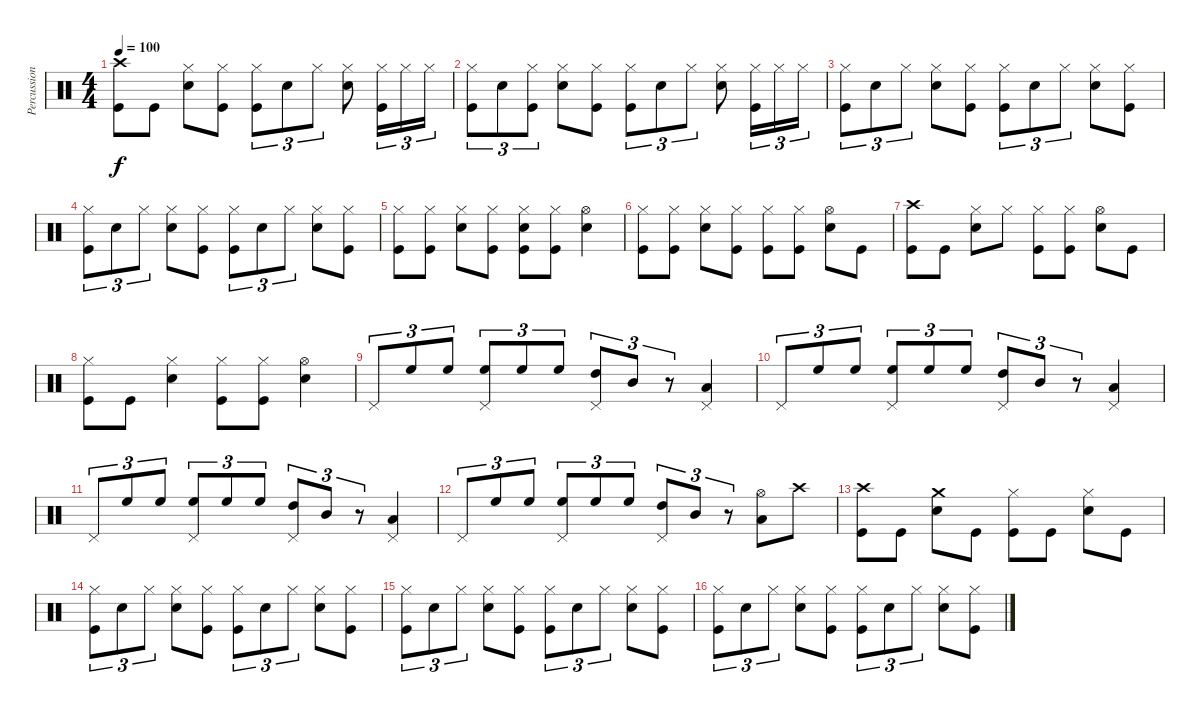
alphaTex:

\track ("Percussions" "Percussion") {instrument percussion}
\staff {score}
\articulation defaults
\ts (4 4)
\tempo 100
\clef neutral
\ks c
("Crash high (hit)" "Kick (hit)").8{dy f} "Kick (hit)".8 ("Hi-Hat (closed)" "Electric Snare (hit)").8 ("Hi-Hat (closed)" "Kick (hit)").8 ("Hi-Hat (closed)" "Kick (hit)").8{tu (3 2)} "Electric Snare (hit)".8{tu (3 2)} "Hi-Hat (closed)".8{tu (3 2)} ("Hi-Hat (closed)" "Electric Snare (hit)").8 ("Hi-Hat (closed)" "Kick (hit)").16{tu (3 2)} "Hi-Hat (closed)".16{tu (3 2)} "Hi-Hat (closed)".16{tu (3 2)} |
("Hi-Hat (closed)" "Kick (hit)").8{tu (3 2)} "Electric Snare (hit)".8{tu (3 2)} ("Hi-Hat (closed)" "Kick (hit)").8{tu (3 2)} ("Hi-Hat (closed)" "Electric Snare (hit)").8 ("Hi-Hat (closed)" "Kick (hit)").8 ("Hi-Hat (closed)" "Kick (hit)").8{tu (3 2)} "Electric Snare (hit)".8{tu (3 2)} "Hi-Hat (closed)".8{tu (3 2)} ("Hi-Hat (closed)" "Electric Snare (hit)").8 ("Hi-Hat (closed)" "Kick (hit)").16{tu (3 2)} "Hi-Hat (closed)".16{tu (3 2)} "Hi-Hat (closed)".16{tu (3 2)} |
("Hi-Hat (closed)" "Kick (hit)").8{tu (3 2)} "Electric Snare (hit)".8{tu (3 2)} "Hi-Hat (closed)".8{tu (3 2)} ("Hi-Hat (closed)" "Electric Snare (hit)").8 ("Hi-Hat (closed)" "Kick (hit)").8 ("Hi-Hat (closed)" "Kick (hit)").8{tu (3 2)} "Electric Snare (hit)".8{tu (3 2)} "Hi-Hat (closed)".8{tu (3 2)} ("Hi-Hat (closed)" "Electric Snare (hit)").8 ("Hi-Hat (closed)" "Kick (hit)").8 |
("Hi-Hat (closed)" "Kick (hit)").8{tu (3 2)} "Electric Snare (hit)".8{tu (3 2)} "Hi-Hat (closed)".8{tu (3 2)} ("Hi-Hat (closed)" "Electric Snare (hit)").8 ("Hi-Hat (closed)" "Kick (hit)").8 ("Hi-Hat (closed)" "Kick (hit)").8{tu (3 2)} "Electric Snare (hit)".8{tu (3 2)} "Hi-Hat (closed)".8{tu (3 2)} ("Hi-Hat (closed)" "Electric Snare (hit)").8 ("Hi-Hat (closed)" "Kick (hit)").8 |
("Hi-Hat (closed)" "Kick (hit)").8 ("Hi-Hat (closed)" "Kick (hit)").8 ("Hi-Hat (closed)" "Electric Snare (hit)").8 ("Hi-Hat (closed)" "Kick (hit)").8 ("Hi-Hat (closed)" "Electric Snare (hit)" "Kick (hit)").8 ("Hi-Hat (closed)" "Kick (hit)").8 ("Hi-Hat (open)" "Electric Snare (hit)").4 |
("Hi-Hat (closed)" "Kick (hit)").8 ("Hi-Hat (closed)" "Kick (hit)").8 ("Hi-Hat (closed)" "Electric Snare (hit)").8 ("Hi-Hat (closed)" "Kick (hit)").8 ("Hi-Hat (closed)" "Kick (hit)").8 ("Hi-Hat (closed)" "Kick (hit)").8 ("Hi-Hat (open)" "Electric Snare (hit)").8 "Kick (hit)".8 |
("Crash high (hit)" "Kick (hit)").8 "Kick (hit)".8 ("Hi-Hat (closed)" "Electric Snare (hit)").8 "Hi-Hat (closed)".8 ("Hi-Hat (closed)" "Kick (hit)").8 ("Hi-Hat (closed)" "Kick (hit)").8 ("Hi-Hat (open)" "Electric Snare (hit)").8 "Kick (hit)".8 |
("Hi-Hat (closed)" "Kick (hit)").8 "Kick (hit)".8 ("Hi-Hat (closed)" "Electric Snare (hit)").4 ("Hi-Hat (closed)" "Kick (hit)").8 ("Hi-Hat (closed)" "Kick (hit)").8 ("Hi-Hat (open)" "Electric Snare (hit)").4 |
"Pedal Hi-Hat (hit)".8{tu (3 2)} "High Floor Tom (hit)".8{tu (3 2)} "High Floor Tom (hit)".8{tu (3 2)} ("High Floor Tom (hit)" "Pedal Hi-Hat (hit)").8{tu (3 2)} "High Floor Tom (hit)".8{tu (3 2)} "High Floor Tom (hit)".8{tu (3 2)} ("High Tom (hit)" "Pedal Hi-Hat (hit)").8{tu (3 2)} "Mid Tom (hit)".8{tu (3 2)} r.8{tu (3 2)} ("Low Tom (hit)" "Pedal Hi-Hat (hit)").4 |
"Pedal Hi-Hat (hit)".8{tu (3 2)} "High Floor Tom (hit)".8{tu (3 2)} "High Floor Tom (hit)".8{tu (3 2)} ("High Floor Tom (hit)" "Pedal Hi-Hat (hit)").8{tu (3 2)} "High Floor Tom (hit)".8{tu (3 2)} "High Floor Tom (hit)".8{tu (3 2)} ("High Tom (hit)" "Pedal Hi-Hat (hit)").8{tu (3 2)} "Mid Tom (hit)".8{tu (3 2)} r.8{tu (3 2)} ("Low Tom (hit)" "Pedal Hi-Hat (hit)").4 |
"Pedal Hi-Hat (hit)".8{tu (3 2)} "High Floor Tom (hit)".8{tu (3 2)} "High Floor Tom (hit)".8{tu (3 2)} ("High Floor Tom (hit)" "Pedal Hi-Hat (hit)").8{tu (3 2)} "High Floor Tom (hit)".8{tu (3 2)} "High Floor Tom (hit)".8{tu (3 2)} ("High Tom (hit)" "Pedal Hi-Hat (hit)").8{tu (3 2)} "Mid Tom (hit)".8{tu (3 2)} r.8{tu (3 2)} ("Low Tom (hit)" "Pedal Hi-Hat (hit)").4 |
"Pedal Hi-Hat (hit)".8{tu (3 2)} "High Floor Tom (hit)".8{tu (3 2)} "High Floor Tom (hit)".8{tu (3 2)} ("High Floor Tom (hit)" "Pedal Hi-Hat (hit)").8{tu (3 2)} "High Floor Tom (hit)".8{tu (3 2)} "High Floor Tom (hit)".8{tu (3 2)} ("High Tom (hit)" "Pedal Hi-Hat (hit)").8{tu (3 2)} "Mid Tom (hit)".8{tu (3 2)} r.8{tu (3 2)} ("Hi-Hat (open)" "Low Tom (hit)").8 "Crash high (hit)".8 |
("Crash high (hit)" "Kick (hit)").8 "Kick (hit)".8 ("Crash medium (hit)" "Electric Snare (hit)").8 "Kick (hit)".8 ("Hi-Hat (closed)" "Kick (hit)").8 "Kick (hit)".8 ("Hi-Hat (closed)" "Electric Snare (hit)").8 "Kick (hit)".8 |
("Hi-Hat (closed)" "Kick (hit)").8{tu (3 2)} "Electric Snare (hit)".8{tu (3 2)} "Hi-Hat (closed)".8{tu (3 2)} ("Hi-Hat (closed)" "Electric Snare (hit)").8 ("Hi-Hat (closed)" "Kick (hit)").8 ("Hi-Hat (closed)" "Kick (hit)").8{tu (3 2)} "Electric Snare (hit)".8{tu (3 2)} "Hi-Hat (closed)".8{tu (3 2)} ("Hi-Hat (closed)" "Electric Snare (hit)").8 ("Hi-Hat (closed)" "Kick (hit)").8 |
("Hi-Hat (closed)" "Kick (hit)").8{tu (3 2)} "Electric Snare (hit)".8{tu (3 2)} "Hi-Hat (closed)".8{tu (3 2)} ("Hi-Hat (closed)" "Electric Snare (hit)").8 ("Hi-Hat (closed)" "Kick (hit)").8 ("Hi-Hat (closed)" "Kick (hit)").8{tu (3 2)} "Electric Snare (hit)".8{tu (3 2)} "Hi-Hat (closed)".8{tu (3 2)} ("Hi-Hat (closed)" "Electric Snare (hit)").8 ("Hi-Hat (closed)" "Kick (hit)").8 |
("Hi-Hat (closed)" "Kick (hit)").8{tu (3 2)} "Electric Snare (hit)".8{tu (3 2)} "Hi-Hat (closed)".8{tu (3 2)} ("Hi-Hat (closed)" "Electric Snare (hit)").8 ("Hi-Hat (closed)" "Kick (hit)").8 ("Hi-Hat (closed)" "Kick (hit)").8{tu (3 2)} "Electric Snare (hit)".8{tu (3 2)} "Hi-Hat (closed)".8{tu (3 2)} ("Hi-Hat (closed)" "Electric Snare (hit)").8 ("Hi-Hat (closed)" "Kick (hit)").8
